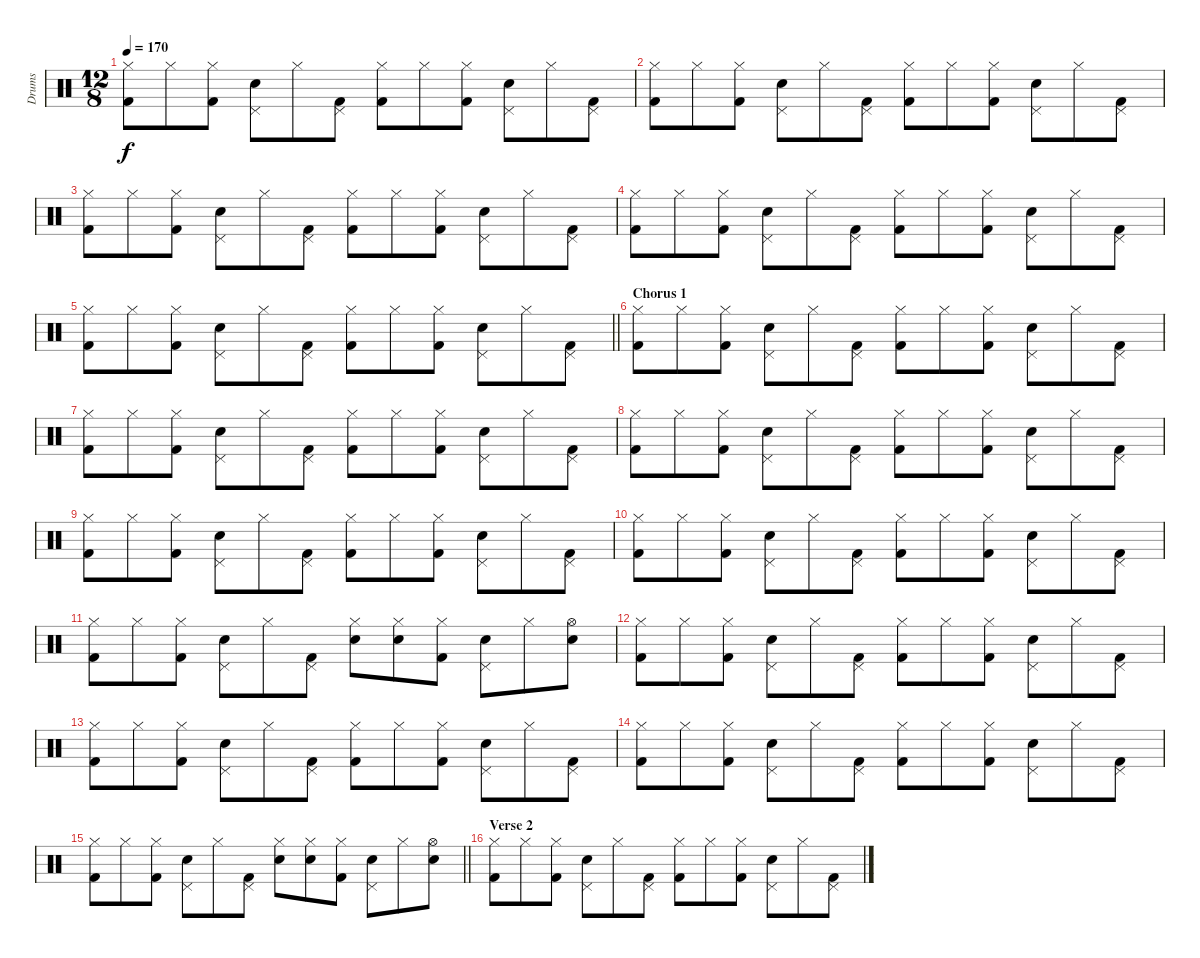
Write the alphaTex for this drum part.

\track ("Drums" "Drums") {instrument percussion}
\staff {score}
\articulation defaults
\ts (12 8)
\tempo 170
\clef neutral
\ks c
("Kick (hit) 2" "Hi-Hat (closed)").8{dy f} "Hi-Hat (closed)".8 ("Kick (hit) 2" "Hi-Hat (closed)").8 ("Snare (hit) 2" "Pedal Hi-Hat (hit)").8 "Hi-Hat (closed)".8 ("Kick (hit) 2" "Pedal Hi-Hat (hit)").8 ("Kick (hit) 2" "Hi-Hat (closed)").8 "Hi-Hat (closed)".8 ("Kick (hit) 2" "Hi-Hat (closed)").8 ("Snare (hit) 2" "Pedal Hi-Hat (hit)").8 "Hi-Hat (closed)".8 ("Kick (hit) 2" "Pedal Hi-Hat (hit)").8 |
("Kick (hit) 2" "Hi-Hat (closed)").8 "Hi-Hat (closed)".8 ("Kick (hit) 2" "Hi-Hat (closed)").8 ("Snare (hit) 2" "Pedal Hi-Hat (hit)").8 "Hi-Hat (closed)".8 ("Kick (hit) 2" "Pedal Hi-Hat (hit)").8 ("Kick (hit) 2" "Hi-Hat (closed)").8 "Hi-Hat (closed)".8 ("Kick (hit) 2" "Hi-Hat (closed)").8 ("Snare (hit) 2" "Pedal Hi-Hat (hit)").8 "Hi-Hat (closed)".8 ("Kick (hit) 2" "Pedal Hi-Hat (hit)").8 |
("Kick (hit) 2" "Hi-Hat (closed)").8 "Hi-Hat (closed)".8 ("Kick (hit) 2" "Hi-Hat (closed)").8 ("Snare (hit) 2" "Pedal Hi-Hat (hit)").8 "Hi-Hat (closed)".8 ("Kick (hit) 2" "Pedal Hi-Hat (hit)").8 ("Kick (hit) 2" "Hi-Hat (closed)").8 "Hi-Hat (closed)".8 ("Kick (hit) 2" "Hi-Hat (closed)").8 ("Snare (hit) 2" "Pedal Hi-Hat (hit)").8 "Hi-Hat (closed)".8 ("Kick (hit) 2" "Pedal Hi-Hat (hit)").8 |
("Kick (hit) 2" "Hi-Hat (closed)").8 "Hi-Hat (closed)".8 ("Kick (hit) 2" "Hi-Hat (closed)").8 ("Snare (hit) 2" "Pedal Hi-Hat (hit)").8 "Hi-Hat (closed)".8 ("Kick (hit) 2" "Pedal Hi-Hat (hit)").8 ("Kick (hit) 2" "Hi-Hat (closed)").8 "Hi-Hat (closed)".8 ("Kick (hit) 2" "Hi-Hat (closed)").8 ("Snare (hit) 2" "Pedal Hi-Hat (hit)").8 "Hi-Hat (closed)".8 ("Kick (hit) 2" "Pedal Hi-Hat (hit)").8 |
\barLineRight lightlight
("Kick (hit) 2" "Hi-Hat (closed)").8 "Hi-Hat (closed)".8 ("Kick (hit) 2" "Hi-Hat (closed)").8 ("Snare (hit) 2" "Pedal Hi-Hat (hit)").8 "Hi-Hat (closed)".8 ("Kick (hit) 2" "Pedal Hi-Hat (hit)").8 ("Kick (hit) 2" "Hi-Hat (closed)").8 "Hi-Hat (closed)".8 ("Kick (hit) 2" "Hi-Hat (closed)").8 ("Snare (hit) 2" "Pedal Hi-Hat (hit)").8 "Hi-Hat (closed)".8 ("Kick (hit) 2" "Pedal Hi-Hat (hit)").8 |
\section ("" "Chorus 1")
("Kick (hit) 2" "Hi-Hat (closed)").8 "Hi-Hat (closed)".8 ("Kick (hit) 2" "Hi-Hat (closed)").8 ("Snare (hit) 2" "Pedal Hi-Hat (hit)").8 "Hi-Hat (closed)".8 ("Kick (hit) 2" "Pedal Hi-Hat (hit)").8 ("Kick (hit) 2" "Hi-Hat (closed)").8 "Hi-Hat (closed)".8 ("Kick (hit) 2" "Hi-Hat (closed)").8 ("Snare (hit) 2" "Pedal Hi-Hat (hit)").8 "Hi-Hat (closed)".8 ("Kick (hit) 2" "Pedal Hi-Hat (hit)").8 |
("Kick (hit) 2" "Hi-Hat (closed)").8 "Hi-Hat (closed)".8 ("Kick (hit) 2" "Hi-Hat (closed)").8 ("Snare (hit) 2" "Pedal Hi-Hat (hit)").8 "Hi-Hat (closed)".8 ("Kick (hit) 2" "Pedal Hi-Hat (hit)").8 ("Kick (hit) 2" "Hi-Hat (closed)").8 "Hi-Hat (closed)".8 ("Kick (hit) 2" "Hi-Hat (closed)").8 ("Snare (hit) 2" "Pedal Hi-Hat (hit)").8 "Hi-Hat (closed)".8 ("Kick (hit) 2" "Pedal Hi-Hat (hit)").8 |
("Kick (hit) 2" "Hi-Hat (closed)").8 "Hi-Hat (closed)".8 ("Kick (hit) 2" "Hi-Hat (closed)").8 ("Snare (hit) 2" "Pedal Hi-Hat (hit)").8 "Hi-Hat (closed)".8 ("Kick (hit) 2" "Pedal Hi-Hat (hit)").8 ("Kick (hit) 2" "Hi-Hat (closed)").8 "Hi-Hat (closed)".8 ("Kick (hit) 2" "Hi-Hat (closed)").8 ("Snare (hit) 2" "Pedal Hi-Hat (hit)").8 "Hi-Hat (closed)".8 ("Kick (hit) 2" "Pedal Hi-Hat (hit)").8 |
("Kick (hit) 2" "Hi-Hat (closed)").8 "Hi-Hat (closed)".8 ("Kick (hit) 2" "Hi-Hat (closed)").8 ("Snare (hit) 2" "Pedal Hi-Hat (hit)").8 "Hi-Hat (closed)".8 ("Kick (hit) 2" "Pedal Hi-Hat (hit)").8 ("Kick (hit) 2" "Hi-Hat (closed)").8 "Hi-Hat (closed)".8 ("Kick (hit) 2" "Hi-Hat (closed)").8 ("Snare (hit) 2" "Pedal Hi-Hat (hit)").8 "Hi-Hat (closed)".8 ("Kick (hit) 2" "Pedal Hi-Hat (hit)").8 |
("Kick (hit) 2" "Hi-Hat (closed)").8 "Hi-Hat (closed)".8 ("Kick (hit) 2" "Hi-Hat (closed)").8 ("Snare (hit) 2" "Pedal Hi-Hat (hit)").8 "Hi-Hat (closed)".8 ("Kick (hit) 2" "Pedal Hi-Hat (hit)").8 ("Kick (hit) 2" "Hi-Hat (closed)").8 "Hi-Hat (closed)".8 ("Kick (hit) 2" "Hi-Hat (closed)").8 ("Snare (hit) 2" "Pedal Hi-Hat (hit)").8 "Hi-Hat (closed)".8 ("Kick (hit) 2" "Pedal Hi-Hat (hit)").8 |
("Kick (hit) 2" "Hi-Hat (closed)").8 "Hi-Hat (closed)".8 ("Kick (hit) 2" "Hi-Hat (closed)").8 ("Snare (hit) 2" "Pedal Hi-Hat (hit)").8 "Hi-Hat (closed)".8 ("Kick (hit) 2" "Pedal Hi-Hat (hit)").8 ("Snare (hit) 2" "Hi-Hat (closed)").8 ("Snare (hit) 2" "Hi-Hat (closed)").8 ("Kick (hit) 2" "Hi-Hat (closed)").8 ("Snare (hit) 2" "Pedal Hi-Hat (hit)").8 "Hi-Hat (closed)".8 ("Snare (hit) 2" "Hi-Hat (open)").8 |
("Kick (hit) 2" "Hi-Hat (closed)").8 "Hi-Hat (closed)".8 ("Kick (hit) 2" "Hi-Hat (closed)").8 ("Snare (hit) 2" "Pedal Hi-Hat (hit)").8 "Hi-Hat (closed)".8 ("Kick (hit) 2" "Pedal Hi-Hat (hit)").8 ("Kick (hit) 2" "Hi-Hat (closed)").8 "Hi-Hat (closed)".8 ("Kick (hit) 2" "Hi-Hat (closed)").8 ("Snare (hit) 2" "Pedal Hi-Hat (hit)").8 "Hi-Hat (closed)".8 ("Kick (hit) 2" "Pedal Hi-Hat (hit)").8 |
("Kick (hit) 2" "Hi-Hat (closed)").8 "Hi-Hat (closed)".8 ("Kick (hit) 2" "Hi-Hat (closed)").8 ("Snare (hit) 2" "Pedal Hi-Hat (hit)").8 "Hi-Hat (closed)".8 ("Kick (hit) 2" "Pedal Hi-Hat (hit)").8 ("Kick (hit) 2" "Hi-Hat (closed)").8 "Hi-Hat (closed)".8 ("Kick (hit) 2" "Hi-Hat (closed)").8 ("Snare (hit) 2" "Pedal Hi-Hat (hit)").8 "Hi-Hat (closed)".8 ("Kick (hit) 2" "Pedal Hi-Hat (hit)").8 |
("Kick (hit) 2" "Hi-Hat (closed)").8 "Hi-Hat (closed)".8 ("Kick (hit) 2" "Hi-Hat (closed)").8 ("Snare (hit) 2" "Pedal Hi-Hat (hit)").8 "Hi-Hat (closed)".8 ("Kick (hit) 2" "Pedal Hi-Hat (hit)").8 ("Kick (hit) 2" "Hi-Hat (closed)").8 "Hi-Hat (closed)".8 ("Kick (hit) 2" "Hi-Hat (closed)").8 ("Snare (hit) 2" "Pedal Hi-Hat (hit)").8 "Hi-Hat (closed)".8 ("Kick (hit) 2" "Pedal Hi-Hat (hit)").8 |
\barLineRight lightlight
("Kick (hit) 2" "Hi-Hat (closed)").8 "Hi-Hat (closed)".8 ("Kick (hit) 2" "Hi-Hat (closed)").8 ("Snare (hit) 2" "Pedal Hi-Hat (hit)").8 "Hi-Hat (closed)".8 ("Kick (hit) 2" "Pedal Hi-Hat (hit)").8 ("Snare (hit) 2" "Hi-Hat (closed)").8 ("Snare (hit) 2" "Hi-Hat (closed)").8 ("Kick (hit) 2" "Hi-Hat (closed)").8 ("Snare (hit) 2" "Pedal Hi-Hat (hit)").8 "Hi-Hat (closed)".8 ("Snare (hit) 2" "Hi-Hat (open)").8 |
\section ("" "Verse 2")
("Kick (hit) 2" "Hi-Hat (closed)").8 "Hi-Hat (closed)".8 ("Kick (hit) 2" "Hi-Hat (closed)").8 ("Snare (hit) 2" "Pedal Hi-Hat (hit)").8 "Hi-Hat (closed)".8 ("Kick (hit) 2" "Pedal Hi-Hat (hit)").8 ("Kick (hit) 2" "Hi-Hat (closed)").8 "Hi-Hat (closed)".8 ("Kick (hit) 2" "Hi-Hat (closed)").8 ("Snare (hit) 2" "Pedal Hi-Hat (hit)").8 "Hi-Hat (closed)".8 ("Kick (hit) 2" "Pedal Hi-Hat (hit)").8
